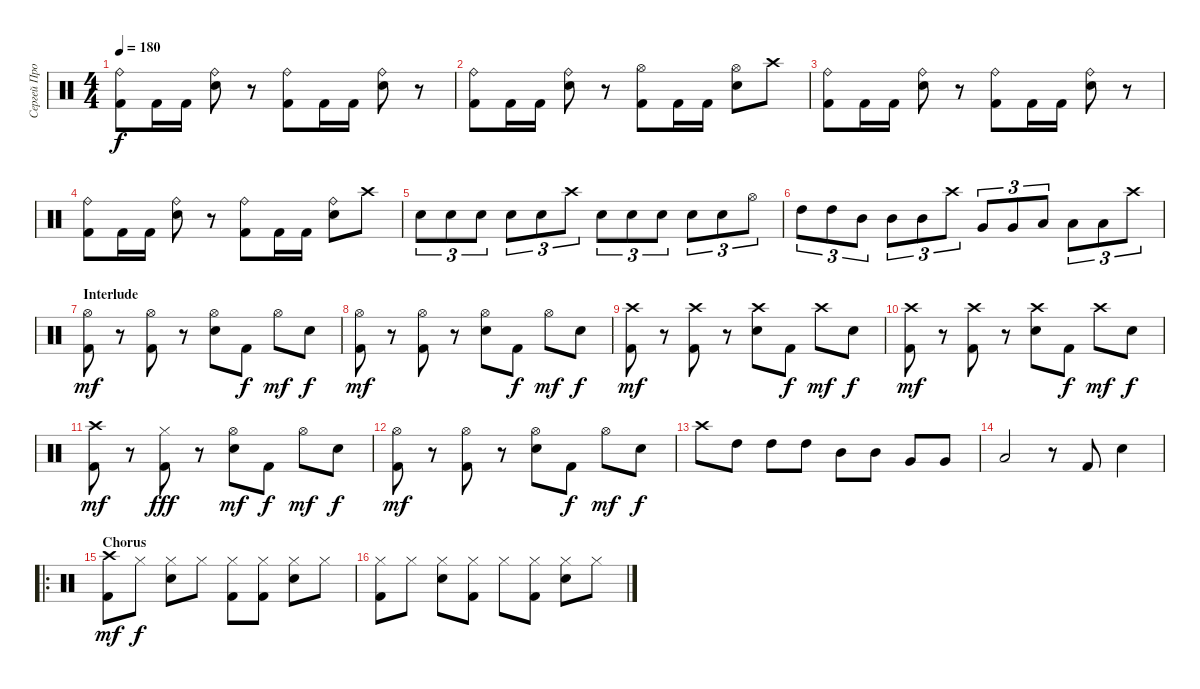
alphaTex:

\track ("Сергей Прокофьев" "Сергей Про") {instrument percussion}
\staff {score}
\articulation defaults
\ts (4 4)
\tempo 180
\clef neutral
\ks c
("Ride (bell)" "Kick (hit) 2").8{dy f} "Kick (hit) 2".16 "Kick (hit) 2".16 ("Ride (bell)" "Snare (hit) 2").8 r.8 ("Ride (bell)" "Kick (hit) 2").8 "Kick (hit) 2".16 "Kick (hit) 2".16 ("Ride (bell)" "Snare (hit) 2").8 r.8 |
("Ride (bell)" "Kick (hit) 2").8 "Kick (hit) 2".16 "Kick (hit) 2".16 ("Ride (bell)" "Snare (hit) 2").8 r.8 ("Hi-Hat (open)" "Kick (hit) 2").8 "Kick (hit) 2".16 "Kick (hit) 2".16 ("Hi-Hat (open)" "Snare (hit) 2").8 "Crash high (hit)".8 |
("Ride (bell)" "Kick (hit) 2").8 "Kick (hit) 2".16 "Kick (hit) 2".16 ("Ride (bell)" "Snare (hit) 2").8 r.8 ("Ride (bell)" "Kick (hit) 2").8 "Kick (hit) 2".16 "Kick (hit) 2".16 ("Ride (bell)" "Snare (hit) 2").8 r.8 |
("Ride (bell)" "Kick (hit) 2").8 "Kick (hit) 2".16 "Kick (hit) 2".16 ("Ride (bell)" "Snare (hit) 2").8 r.8 ("Ride (bell)" "Kick (hit) 2").8 "Kick (hit) 2".16 "Kick (hit) 2".16 ("Ride (bell)" "Snare (hit) 2").8 "Crash high (hit)".8 |
"Snare (hit) 2".8{tu (3 2)} "Snare (hit) 2".8{tu (3 2)} "Snare (hit) 2".8{tu (3 2)} "Snare (hit) 2".8{tu (3 2)} "Snare (hit) 2".8{tu (3 2)} "Crash high (hit)".8{tu (3 2)} "Snare (hit) 2".8{tu (3 2)} "Snare (hit) 2".8{tu (3 2)} "Snare (hit) 2".8{tu (3 2)} "Snare (hit) 2".8{tu (3 2)} "Snare (hit) 2".8{tu (3 2)} "Hi-Hat (open)".8{tu (3 2)} |
"High Tom (hit)".8{tu (3 2)} "High Tom (hit)".8{tu (3 2)} "Mid Tom (hit)".8{tu (3 2)} "Mid Tom (hit)".8{tu (3 2)} "Mid Tom (hit)".8{tu (3 2)} "Crash high (hit)".8{tu (3 2)} "Very Low Tom (hit)".8{tu (3 2)} "Very Low Tom (hit)".8{tu (3 2)} "Low Floor Tom (hit)".8{tu (3 2)} "Low Floor Tom (hit)".8{tu (3 2)} "Low Floor Tom (hit)".8{tu (3 2)} "Crash high (hit)".8{tu (3 2)} |
\section ("" "Interlude")
("Hi-Hat (open)" "Kick (hit) 2").8{dy mf} r.8 ("Hi-Hat (open)" "Kick (hit) 2").8 r.8 ("Hi-Hat (open)" "Snare (hit) 2").8 "Kick (hit) 2".8{dy f} "Hi-Hat (open)".8{dy mf} "Snare (hit) 2".8{dy f} |
("Hi-Hat (open)" "Kick (hit) 2").8{dy mf} r.8 ("Hi-Hat (open)" "Kick (hit) 2").8 r.8 ("Hi-Hat (open)" "Snare (hit) 2").8 "Kick (hit) 2".8{dy f} "Hi-Hat (open)".8{dy mf} "Snare (hit) 2".8{dy f} |
("Crash high (hit)" "Kick (hit) 2").8{dy mf} r.8 ("Crash high (hit)" "Kick (hit) 2").8 r.8 ("Crash high (hit)" "Snare (hit) 2").8 "Kick (hit) 2".8{dy f} "Crash high (hit)".8{dy mf} "Snare (hit) 2".8{dy f} |
("Crash high (hit)" "Kick (hit) 2").8{dy mf} r.8 ("Crash high (hit)" "Kick (hit) 2").8 r.8 ("Crash high (hit)" "Snare (hit) 2").8 "Kick (hit) 2".8{dy f} "Crash high (hit)".8{dy mf} "Snare (hit) 2".8{dy f} |
("Crash high (hit)" "Kick (hit) 2").8{dy mf} r.8 ("Hi-Hat (closed)" "Kick (hit) 2").8{dy fff} r.8 ("Hi-Hat (open)" "Snare (hit) 2").8{dy mf} "Kick (hit) 2".8{dy f} "Hi-Hat (open)".8{dy mf} "Snare (hit) 2".8{dy f} |
("Hi-Hat (open)" "Kick (hit) 2").8{dy mf} r.8 ("Hi-Hat (open)" "Kick (hit) 2").8 r.8 ("Hi-Hat (open)" "Snare (hit) 2").8 "Kick (hit) 2".8{dy f} "Hi-Hat (open)".8{dy mf} "Snare (hit) 2".8{dy f} |
"Crash high (hit)".8 "High Tom (hit)".8 "High Tom (hit)".8 "High Tom (hit)".8 "Mid Tom (hit)".8 "Mid Tom (hit)".8 "Very Low Tom (hit)".8 "Very Low Tom (hit)".8 |
"Low Floor Tom (hit)".2 r.8 "Kick (hit) 2".8 "Snare (hit) 2".4 |
\ro
\section ("" "Chorus")
("Crash high (hit)" "Kick (hit) 2").8{dy mf} "Hi-Hat (closed)".8{dy f} ("Hi-Hat (closed)" "Snare (hit) 2").8 "Hi-Hat (closed)".8 ("Hi-Hat (closed)" "Kick (hit) 2").8 ("Hi-Hat (closed)" "Kick (hit) 2").8 ("Hi-Hat (closed)" "Snare (hit) 2").8 "Hi-Hat (closed)".8 |
("Hi-Hat (closed)" "Kick (hit) 2").8 "Hi-Hat (closed)".8 ("Hi-Hat (closed)" "Snare (hit) 2").8 ("Hi-Hat (closed)" "Kick (hit) 2").8 "Hi-Hat (closed)".8 ("Hi-Hat (closed)" "Kick (hit) 2").8 ("Hi-Hat (closed)" "Snare (hit) 2").8 "Hi-Hat (closed)".8
